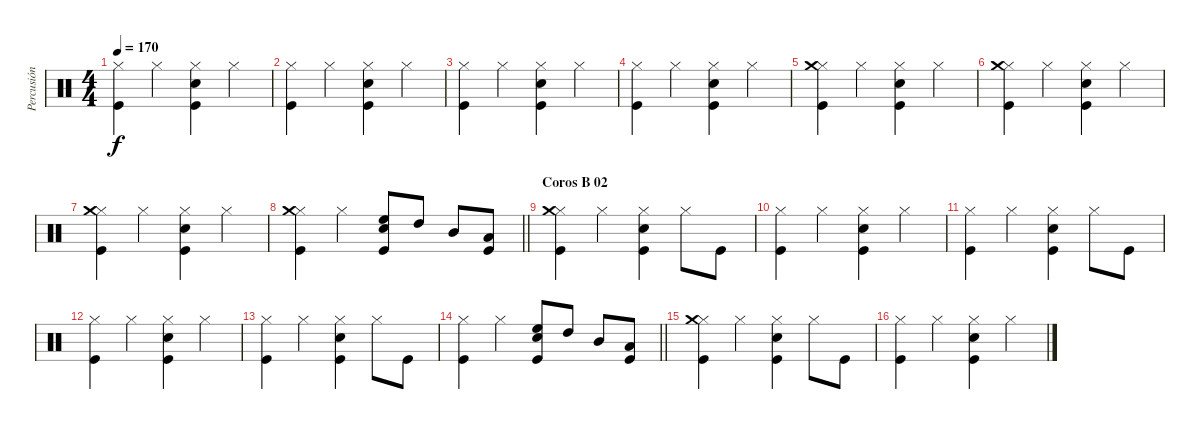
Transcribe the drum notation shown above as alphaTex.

\track ("Percusión" "Percusión") {instrument percussion}
\staff {score}
\articulation defaults
\ts (4 4)
\tempo 170
\clef neutral
\ks c
("Hi-Hat (closed)" "Kick (hit)").4{dy f} "Hi-Hat (closed)".4 ("Hi-Hat (closed)" "Snare (hit) 2" "Kick (hit)").4 "Hi-Hat (closed)".4 |
("Hi-Hat (closed)" "Kick (hit)").4 "Hi-Hat (closed)".4 ("Hi-Hat (closed)" "Snare (hit) 2" "Kick (hit)").4 "Hi-Hat (closed)".4 |
("Hi-Hat (closed)" "Kick (hit)").4 "Hi-Hat (closed)".4 ("Hi-Hat (closed)" "Snare (hit) 2" "Kick (hit)").4 "Hi-Hat (closed)".4 |
("Hi-Hat (closed)" "Kick (hit)").4 "Hi-Hat (closed)".4 ("Hi-Hat (closed)" "Snare (hit) 2" "Kick (hit)").4 "Hi-Hat (closed)".4 |
("Hi-Hat (closed)" "Crash medium (hit)" "Kick (hit)").4 "Hi-Hat (closed)".4 ("Hi-Hat (closed)" "Snare (hit) 2" "Kick (hit)").4 "Hi-Hat (closed)".4 |
("Hi-Hat (closed)" "Crash medium (hit)" "Kick (hit)").4 "Hi-Hat (closed)".4 ("Hi-Hat (closed)" "Snare (hit) 2" "Kick (hit)").4 "Hi-Hat (closed)".4 |
("Hi-Hat (closed)" "Crash medium (hit)" "Kick (hit)").4 "Hi-Hat (closed)".4 ("Hi-Hat (closed)" "Snare (hit) 2" "Kick (hit)").4 "Hi-Hat (closed)".4 |
\barLineRight lightlight
("Hi-Hat (closed)" "Crash medium (hit)" "Kick (hit)").4 "Hi-Hat (closed)".4 ("High Floor Tom (hit)" "Snare (hit) 2" "Kick (hit)").8 "High Tom (hit)".8 "Mid Tom (hit)".8 ("Low Tom (hit)" "Kick (hit)").8 |
\section ("" "Coros B 02")
("Hi-Hat (closed)" "Crash medium (hit)" "Kick (hit)").4 "Hi-Hat (closed)".4 ("Hi-Hat (closed)" "Snare (hit) 2" "Kick (hit)").4 "Hi-Hat (closed)".8 "Kick (hit)".8 |
("Hi-Hat (closed)" "Kick (hit)").4 "Hi-Hat (closed)".4 ("Hi-Hat (closed)" "Snare (hit) 2" "Kick (hit)").4 "Hi-Hat (closed)".4 |
("Hi-Hat (closed)" "Kick (hit)").4 "Hi-Hat (closed)".4 ("Hi-Hat (closed)" "Snare (hit) 2" "Kick (hit)").4 "Hi-Hat (closed)".8 "Kick (hit)".8 |
("Hi-Hat (closed)" "Kick (hit)").4 "Hi-Hat (closed)".4 ("Hi-Hat (closed)" "Snare (hit) 2" "Kick (hit)").4 "Hi-Hat (closed)".4 |
("Hi-Hat (closed)" "Kick (hit)").4 "Hi-Hat (closed)".4 ("Hi-Hat (closed)" "Snare (hit) 2" "Kick (hit)").4 "Hi-Hat (closed)".8 "Kick (hit)".8 |
\barLineRight lightlight
("Hi-Hat (closed)" "Kick (hit)").4 "Hi-Hat (closed)".4 ("High Floor Tom (hit)" "Snare (hit) 2" "Kick (hit)").8 "High Tom (hit)".8 "Mid Tom (hit)".8 ("Low Tom (hit)" "Kick (hit)").8 |
("Hi-Hat (closed)" "Crash medium (hit)" "Kick (hit)").4 "Hi-Hat (closed)".4 ("Hi-Hat (closed)" "Snare (hit) 2" "Kick (hit)").4 "Hi-Hat (closed)".8 "Kick (hit)".8 |
("Hi-Hat (closed)" "Kick (hit)").4 "Hi-Hat (closed)".4 ("Hi-Hat (closed)" "Snare (hit) 2" "Kick (hit)").4 "Hi-Hat (closed)".4
